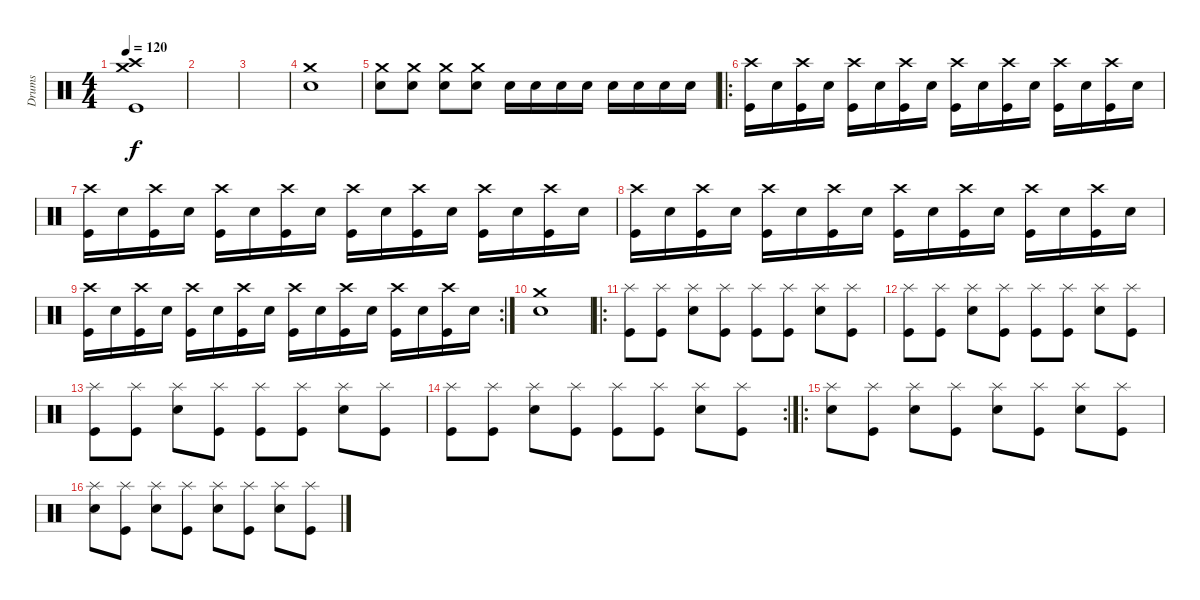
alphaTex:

\track ("Drums" "Drums") {instrument percussion}
\staff {score}
\articulation defaults
\ts (4 4)
\tempo 120
\clef neutral
\ks c
("Crash medium (hit)" "Crash high (hit)" "Kick (hit)").1{dy f} |
|
|
("Crash medium (hit)" "Electric Snare (hit)").1 |
("Crash medium (hit)" "Electric Snare (hit)").8 ("Crash medium (hit)" "Electric Snare (hit)").8 ("Crash medium (hit)" "Electric Snare (hit)").8 ("Crash medium (hit)" "Electric Snare (hit)").8 "Electric Snare (hit)".16 "Electric Snare (hit)".16 "Electric Snare (hit)".16 "Electric Snare (hit)".16 "Electric Snare (hit)".16 "Electric Snare (hit)".16 "Electric Snare (hit)".16 "Electric Snare (hit)".16 |
\ro
("Crash high (hit)" "Kick (hit)").16 "Electric Snare (hit)".16 ("Crash high (hit)" "Kick (hit)").16 "Electric Snare (hit)".16 ("Crash high (hit)" "Kick (hit)").16 "Electric Snare (hit)".16 ("Crash high (hit)" "Kick (hit)").16 "Electric Snare (hit)".16 ("Crash high (hit)" "Kick (hit)").16 "Electric Snare (hit)".16 ("Crash high (hit)" "Kick (hit)").16 "Electric Snare (hit)".16 ("Crash high (hit)" "Kick (hit)").16 "Electric Snare (hit)".16 ("Crash high (hit)" "Kick (hit)").16 "Electric Snare (hit)".16 |
("Crash high (hit)" "Kick (hit)").16 "Electric Snare (hit)".16 ("Crash high (hit)" "Kick (hit)").16 "Electric Snare (hit)".16 ("Crash high (hit)" "Kick (hit)").16 "Electric Snare (hit)".16 ("Crash high (hit)" "Kick (hit)").16 "Electric Snare (hit)".16 ("Crash high (hit)" "Kick (hit)").16 "Electric Snare (hit)".16 ("Crash high (hit)" "Kick (hit)").16 "Electric Snare (hit)".16 ("Crash high (hit)" "Kick (hit)").16 "Electric Snare (hit)".16 ("Crash high (hit)" "Kick (hit)").16 "Electric Snare (hit)".16 |
("Crash high (hit)" "Kick (hit)").16 "Electric Snare (hit)".16 ("Crash high (hit)" "Kick (hit)").16 "Electric Snare (hit)".16 ("Crash high (hit)" "Kick (hit)").16 "Electric Snare (hit)".16 ("Crash high (hit)" "Kick (hit)").16 "Electric Snare (hit)".16 ("Crash high (hit)" "Kick (hit)").16 "Electric Snare (hit)".16 ("Crash high (hit)" "Kick (hit)").16 "Electric Snare (hit)".16 ("Crash high (hit)" "Kick (hit)").16 "Electric Snare (hit)".16 ("Crash high (hit)" "Kick (hit)").16 "Electric Snare (hit)".16 |
\rc 2
("Crash high (hit)" "Kick (hit)").16 "Electric Snare (hit)".16 ("Crash high (hit)" "Kick (hit)").16 "Electric Snare (hit)".16 ("Crash high (hit)" "Kick (hit)").16 "Electric Snare (hit)".16 ("Crash high (hit)" "Kick (hit)").16 "Electric Snare (hit)".16 ("Crash high (hit)" "Kick (hit)").16 "Electric Snare (hit)".16 ("Crash high (hit)" "Kick (hit)").16 "Electric Snare (hit)".16 ("Crash high (hit)" "Kick (hit)").16 "Electric Snare (hit)".16 ("Crash high (hit)" "Kick (hit)").16 "Electric Snare (hit)".16 |
("Crash medium (hit)" "Electric Snare (hit)").1 |
\ro
("Splash (hit)" "Kick (hit)").8 ("Splash (hit)" "Kick (hit)").8 ("Splash (hit)" "Electric Snare (hit)").8 ("Splash (hit)" "Kick (hit)").8 ("Splash (hit)" "Kick (hit)").8 ("Splash (hit)" "Kick (hit)").8 ("Splash (hit)" "Electric Snare (hit)").8 ("Splash (hit)" "Kick (hit)").8 |
("Splash (hit)" "Kick (hit)").8 ("Splash (hit)" "Kick (hit)").8 ("Splash (hit)" "Electric Snare (hit)").8 ("Splash (hit)" "Kick (hit)").8 ("Splash (hit)" "Kick (hit)").8 ("Splash (hit)" "Kick (hit)").8 ("Splash (hit)" "Electric Snare (hit)").8 ("Splash (hit)" "Kick (hit)").8 |
("Splash (hit)" "Kick (hit)").8 ("Splash (hit)" "Kick (hit)").8 ("Splash (hit)" "Electric Snare (hit)").8 ("Splash (hit)" "Kick (hit)").8 ("Splash (hit)" "Kick (hit)").8 ("Splash (hit)" "Kick (hit)").8 ("Splash (hit)" "Electric Snare (hit)").8 ("Splash (hit)" "Kick (hit)").8 |
\rc 2
("Splash (hit)" "Kick (hit)").8 ("Splash (hit)" "Kick (hit)").8 ("Splash (hit)" "Electric Snare (hit)").8 ("Splash (hit)" "Kick (hit)").8 ("Splash (hit)" "Kick (hit)").8 ("Splash (hit)" "Kick (hit)").8 ("Splash (hit)" "Electric Snare (hit)").8 ("Splash (hit)" "Kick (hit)").8 |
\ro
("Splash (hit)" "Electric Snare (hit)").8 ("Splash (hit)" "Kick (hit)").8 ("Splash (hit)" "Electric Snare (hit)").8 ("Splash (hit)" "Kick (hit)").8 ("Splash (hit)" "Electric Snare (hit)").8 ("Splash (hit)" "Kick (hit)").8 ("Splash (hit)" "Electric Snare (hit)").8 ("Splash (hit)" "Kick (hit)").8 |
("Splash (hit)" "Electric Snare (hit)").8 ("Splash (hit)" "Kick (hit)").8 ("Splash (hit)" "Electric Snare (hit)").8 ("Splash (hit)" "Kick (hit)").8 ("Splash (hit)" "Electric Snare (hit)").8 ("Splash (hit)" "Kick (hit)").8 ("Splash (hit)" "Electric Snare (hit)").8 ("Splash (hit)" "Kick (hit)").8
